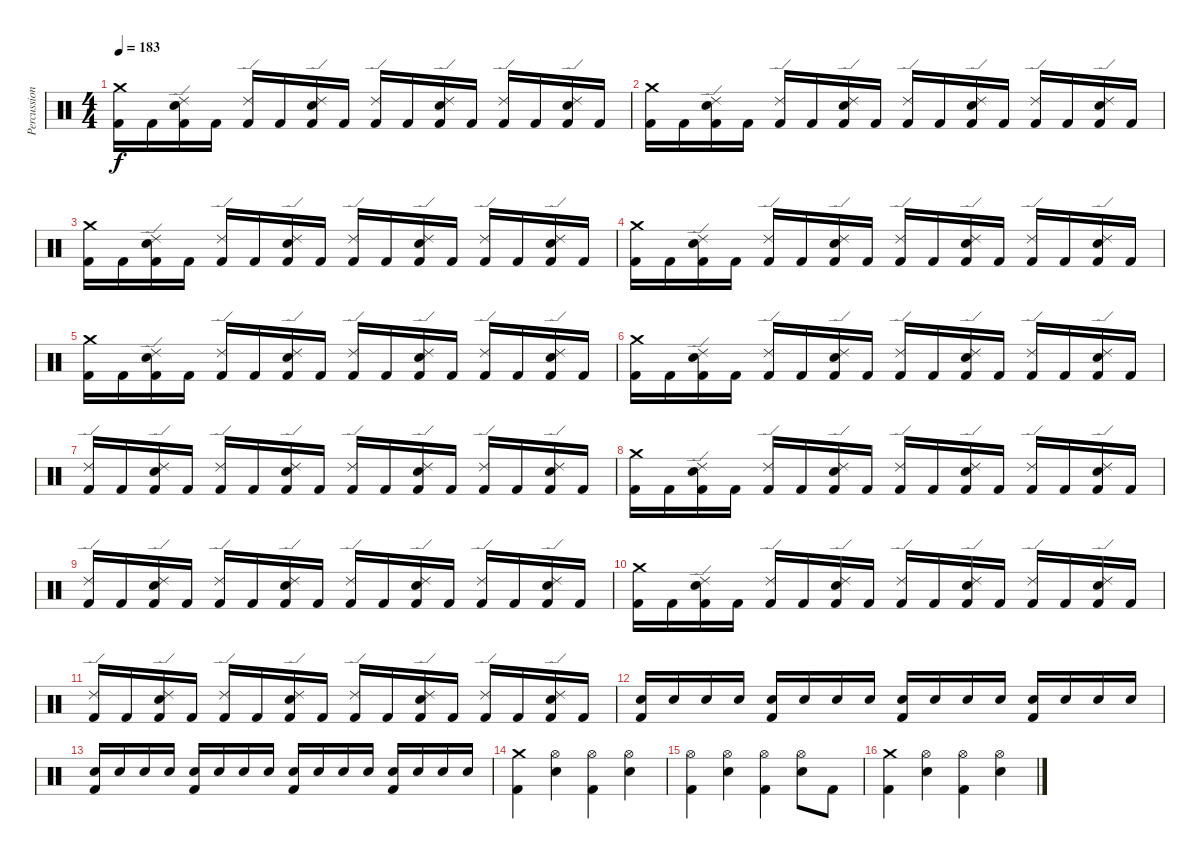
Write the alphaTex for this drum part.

\track ("Percussion" "Percussion") {instrument percussion}
\staff {score}
\articulation defaults
\ts (4 4)
\tempo 183
\clef neutral
\ks c
("Crash medium (hit)" "Kick (hit) 2").16{dy f} "Kick (hit) 2".16 ("Ride (edge) 2" "Snare (hit) 2" "Kick (hit) 2").16 "Kick (hit) 2".16 ("Ride (edge) 2" "Kick (hit) 2").16 "Kick (hit) 2".16 ("Ride (edge) 2" "Snare (hit) 2" "Kick (hit) 2").16 "Kick (hit) 2".16 ("Ride (edge) 2" "Kick (hit) 2").16 "Kick (hit) 2".16 ("Ride (edge) 2" "Snare (hit) 2" "Kick (hit) 2").16 "Kick (hit) 2".16 ("Ride (edge) 2" "Kick (hit) 2").16 "Kick (hit) 2".16 ("Ride (edge) 2" "Snare (hit) 2" "Kick (hit) 2").16 "Kick (hit) 2".16 |
("Crash medium (hit)" "Kick (hit) 2").16 "Kick (hit) 2".16 ("Ride (edge) 2" "Snare (hit) 2" "Kick (hit) 2").16 "Kick (hit) 2".16 ("Ride (edge) 2" "Kick (hit) 2").16 "Kick (hit) 2".16 ("Ride (edge) 2" "Snare (hit) 2" "Kick (hit) 2").16 "Kick (hit) 2".16 ("Ride (edge) 2" "Kick (hit) 2").16 "Kick (hit) 2".16 ("Ride (edge) 2" "Snare (hit) 2" "Kick (hit) 2").16 "Kick (hit) 2".16 ("Ride (edge) 2" "Kick (hit) 2").16 "Kick (hit) 2".16 ("Ride (edge) 2" "Snare (hit) 2" "Kick (hit) 2").16 "Kick (hit) 2".16 |
("Crash medium (hit)" "Kick (hit) 2").16 "Kick (hit) 2".16 ("Ride (edge) 2" "Snare (hit) 2" "Kick (hit) 2").16 "Kick (hit) 2".16 ("Ride (edge) 2" "Kick (hit) 2").16 "Kick (hit) 2".16 ("Ride (edge) 2" "Snare (hit) 2" "Kick (hit) 2").16 "Kick (hit) 2".16 ("Ride (edge) 2" "Kick (hit) 2").16 "Kick (hit) 2".16 ("Ride (edge) 2" "Snare (hit) 2" "Kick (hit) 2").16 "Kick (hit) 2".16 ("Ride (edge) 2" "Kick (hit) 2").16 "Kick (hit) 2".16 ("Ride (edge) 2" "Snare (hit) 2" "Kick (hit) 2").16 "Kick (hit) 2".16 |
("Crash medium (hit)" "Kick (hit) 2").16 "Kick (hit) 2".16 ("Ride (edge) 2" "Snare (hit) 2" "Kick (hit) 2").16 "Kick (hit) 2".16 ("Ride (edge) 2" "Kick (hit) 2").16 "Kick (hit) 2".16 ("Ride (edge) 2" "Snare (hit) 2" "Kick (hit) 2").16 "Kick (hit) 2".16 ("Ride (edge) 2" "Kick (hit) 2").16 "Kick (hit) 2".16 ("Ride (edge) 2" "Snare (hit) 2" "Kick (hit) 2").16 "Kick (hit) 2".16 ("Ride (edge) 2" "Kick (hit) 2").16 "Kick (hit) 2".16 ("Ride (edge) 2" "Snare (hit) 2" "Kick (hit) 2").16 "Kick (hit) 2".16 |
("Crash medium (hit)" "Kick (hit) 2").16 "Kick (hit) 2".16 ("Ride (edge) 2" "Snare (hit) 2" "Kick (hit) 2").16 "Kick (hit) 2".16 ("Ride (edge) 2" "Kick (hit) 2").16 "Kick (hit) 2".16 ("Ride (edge) 2" "Snare (hit) 2" "Kick (hit) 2").16 "Kick (hit) 2".16 ("Ride (edge) 2" "Kick (hit) 2").16 "Kick (hit) 2".16 ("Ride (edge) 2" "Snare (hit) 2" "Kick (hit) 2").16 "Kick (hit) 2".16 ("Ride (edge) 2" "Kick (hit) 2").16 "Kick (hit) 2".16 ("Ride (edge) 2" "Snare (hit) 2" "Kick (hit) 2").16 "Kick (hit) 2".16 |
("Crash medium (hit)" "Kick (hit) 2").16 "Kick (hit) 2".16 ("Ride (edge) 2" "Snare (hit) 2" "Kick (hit) 2").16 "Kick (hit) 2".16 ("Ride (edge) 2" "Kick (hit) 2").16 "Kick (hit) 2".16 ("Ride (edge) 2" "Snare (hit) 2" "Kick (hit) 2").16 "Kick (hit) 2".16 ("Ride (edge) 2" "Kick (hit) 2").16 "Kick (hit) 2".16 ("Ride (edge) 2" "Snare (hit) 2" "Kick (hit) 2").16 "Kick (hit) 2".16 ("Ride (edge) 2" "Kick (hit) 2").16 "Kick (hit) 2".16 ("Ride (edge) 2" "Snare (hit) 2" "Kick (hit) 2").16 "Kick (hit) 2".16 |
("Ride (edge) 2" "Kick (hit) 2").16 "Kick (hit) 2".16 ("Ride (edge) 2" "Snare (hit) 2" "Kick (hit) 2").16 "Kick (hit) 2".16 ("Ride (edge) 2" "Kick (hit) 2").16 "Kick (hit) 2".16 ("Ride (edge) 2" "Snare (hit) 2" "Kick (hit) 2").16 "Kick (hit) 2".16 ("Ride (edge) 2" "Kick (hit) 2").16 "Kick (hit) 2".16 ("Ride (edge) 2" "Snare (hit) 2" "Kick (hit) 2").16 "Kick (hit) 2".16 ("Ride (edge) 2" "Kick (hit) 2").16 "Kick (hit) 2".16 ("Ride (edge) 2" "Snare (hit) 2" "Kick (hit) 2").16 "Kick (hit) 2".16 |
("Crash medium (hit)" "Kick (hit) 2").16 "Kick (hit) 2".16 ("Ride (edge) 2" "Snare (hit) 2" "Kick (hit) 2").16 "Kick (hit) 2".16 ("Ride (edge) 2" "Kick (hit) 2").16 "Kick (hit) 2".16 ("Ride (edge) 2" "Snare (hit) 2" "Kick (hit) 2").16 "Kick (hit) 2".16 ("Ride (edge) 2" "Kick (hit) 2").16 "Kick (hit) 2".16 ("Ride (edge) 2" "Snare (hit) 2" "Kick (hit) 2").16 "Kick (hit) 2".16 ("Ride (edge) 2" "Kick (hit) 2").16 "Kick (hit) 2".16 ("Ride (edge) 2" "Snare (hit) 2" "Kick (hit) 2").16 "Kick (hit) 2".16 |
("Ride (edge) 2" "Kick (hit) 2").16 "Kick (hit) 2".16 ("Ride (edge) 2" "Snare (hit) 2" "Kick (hit) 2").16 "Kick (hit) 2".16 ("Ride (edge) 2" "Kick (hit) 2").16 "Kick (hit) 2".16 ("Ride (edge) 2" "Snare (hit) 2" "Kick (hit) 2").16 "Kick (hit) 2".16 ("Ride (edge) 2" "Kick (hit) 2").16 "Kick (hit) 2".16 ("Ride (edge) 2" "Snare (hit) 2" "Kick (hit) 2").16 "Kick (hit) 2".16 ("Ride (edge) 2" "Kick (hit) 2").16 "Kick (hit) 2".16 ("Ride (edge) 2" "Snare (hit) 2" "Kick (hit) 2").16 "Kick (hit) 2".16 |
("Crash medium (hit)" "Kick (hit) 2").16 "Kick (hit) 2".16 ("Ride (edge) 2" "Snare (hit) 2" "Kick (hit) 2").16 "Kick (hit) 2".16 ("Ride (edge) 2" "Kick (hit) 2").16 "Kick (hit) 2".16 ("Ride (edge) 2" "Snare (hit) 2" "Kick (hit) 2").16 "Kick (hit) 2".16 ("Ride (edge) 2" "Kick (hit) 2").16 "Kick (hit) 2".16 ("Ride (edge) 2" "Snare (hit) 2" "Kick (hit) 2").16 "Kick (hit) 2".16 ("Ride (edge) 2" "Kick (hit) 2").16 "Kick (hit) 2".16 ("Ride (edge) 2" "Snare (hit) 2" "Kick (hit) 2").16 "Kick (hit) 2".16 |
("Ride (edge) 2" "Kick (hit) 2").16 "Kick (hit) 2".16 ("Ride (edge) 2" "Snare (hit) 2" "Kick (hit) 2").16 "Kick (hit) 2".16 ("Ride (edge) 2" "Kick (hit) 2").16 "Kick (hit) 2".16 ("Ride (edge) 2" "Snare (hit) 2" "Kick (hit) 2").16 "Kick (hit) 2".16 ("Ride (edge) 2" "Kick (hit) 2").16 "Kick (hit) 2".16 ("Ride (edge) 2" "Snare (hit) 2" "Kick (hit) 2").16 "Kick (hit) 2".16 ("Ride (edge) 2" "Kick (hit) 2").16 "Kick (hit) 2".16 ("Ride (edge) 2" "Snare (hit) 2" "Kick (hit) 2").16 "Kick (hit) 2".16 |
("Snare (hit) 2" "Kick (hit) 2").16 "Snare (hit) 2".16 "Snare (hit) 2".16 "Snare (hit) 2".16 ("Snare (hit) 2" "Kick (hit) 2").16 "Snare (hit) 2".16 "Snare (hit) 2".16 "Snare (hit) 2".16 ("Snare (hit) 2" "Kick (hit) 2").16 "Snare (hit) 2".16 "Snare (hit) 2".16 "Snare (hit) 2".16 ("Snare (hit) 2" "Kick (hit) 2").16 "Snare (hit) 2".16 "Snare (hit) 2".16 "Snare (hit) 2".16 |
("Snare (hit) 2" "Kick (hit) 2").16 "Snare (hit) 2".16 "Snare (hit) 2".16 "Snare (hit) 2".16 ("Snare (hit) 2" "Kick (hit) 2").16 "Snare (hit) 2".16 "Snare (hit) 2".16 "Snare (hit) 2".16 ("Snare (hit) 2" "Kick (hit) 2").16 "Snare (hit) 2".16 "Snare (hit) 2".16 "Snare (hit) 2".16 ("Snare (hit) 2" "Kick (hit) 2").16 "Snare (hit) 2".16 "Snare (hit) 2".16 "Snare (hit) 2".16 |
("Crash medium (hit)" "Kick (hit) 2").4 ("Hi-Hat (open)" "Snare (hit) 2").4 ("Hi-Hat (open)" "Kick (hit) 2").4 ("Hi-Hat (open)" "Snare (hit) 2").4 |
("Hi-Hat (open)" "Kick (hit) 2").4 ("Hi-Hat (open)" "Snare (hit) 2").4 ("Hi-Hat (open)" "Kick (hit) 2").4 ("Hi-Hat (open)" "Snare (hit) 2").8 "Kick (hit) 2".8 |
("Crash medium (hit)" "Kick (hit) 2").4 ("Hi-Hat (open)" "Snare (hit) 2").4 ("Hi-Hat (open)" "Kick (hit) 2").4 ("Hi-Hat (open)" "Snare (hit) 2").4
